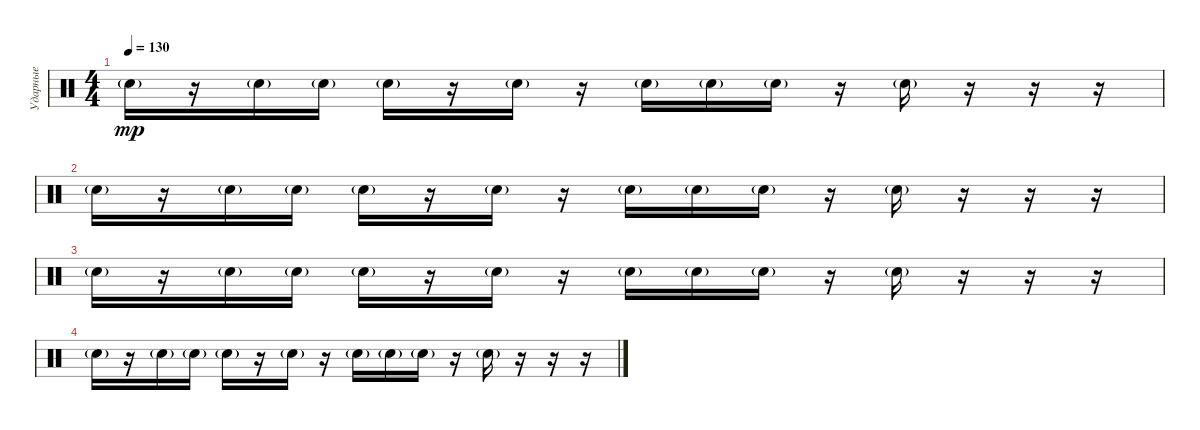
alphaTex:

\track ("Ударные" "Ударные") {instrument percussion}
\staff {score}
\articulation defaults
\ts (4 4)
\tempo 130
\clef neutral
\ks c "Electric Snare (hit)"{g}.16{dy mp}
r.16 "Electric Snare (hit)"{g}.16 "Electric Snare (hit)"{g}.16 "Electric Snare (hit)"{g}.16 r.16 "Electric Snare (hit)"{g}.16 r.16 "Electric Snare (hit)"{g}.16 "Electric Snare (hit)"{g}.16 "Electric Snare (hit)"{g}.16 r.16 "Electric Snare (hit)"{g}.16 r.16 r.16 r.16 |
"Electric Snare (hit)"{g}.16 r.16 "Electric Snare (hit)"{g}.16 "Electric Snare (hit)"{g}.16 "Electric Snare (hit)"{g}.16 r.16 "Electric Snare (hit)"{g}.16 r.16 "Electric Snare (hit)"{g}.16 "Electric Snare (hit)"{g}.16 "Electric Snare (hit)"{g}.16 r.16 "Electric Snare (hit)"{g}.16 r.16 r.16 r.16 |
"Electric Snare (hit)"{g}.16 r.16 "Electric Snare (hit)"{g}.16 "Electric Snare (hit)"{g}.16 "Electric Snare (hit)"{g}.16 r.16 "Electric Snare (hit)"{g}.16 r.16 "Electric Snare (hit)"{g}.16 "Electric Snare (hit)"{g}.16 "Electric Snare (hit)"{g}.16 r.16 "Electric Snare (hit)"{g}.16 r.16 r.16 r.16 |
"Electric Snare (hit)"{g}.16 r.16 "Electric Snare (hit)"{g}.16 "Electric Snare (hit)"{g}.16 "Electric Snare (hit)"{g}.16 r.16 "Electric Snare (hit)"{g}.16 r.16 "Electric Snare (hit)"{g}.16 "Electric Snare (hit)"{g}.16 "Electric Snare (hit)"{g}.16 r.16 "Electric Snare (hit)"{g}.16 r.16 r.16 r.16
